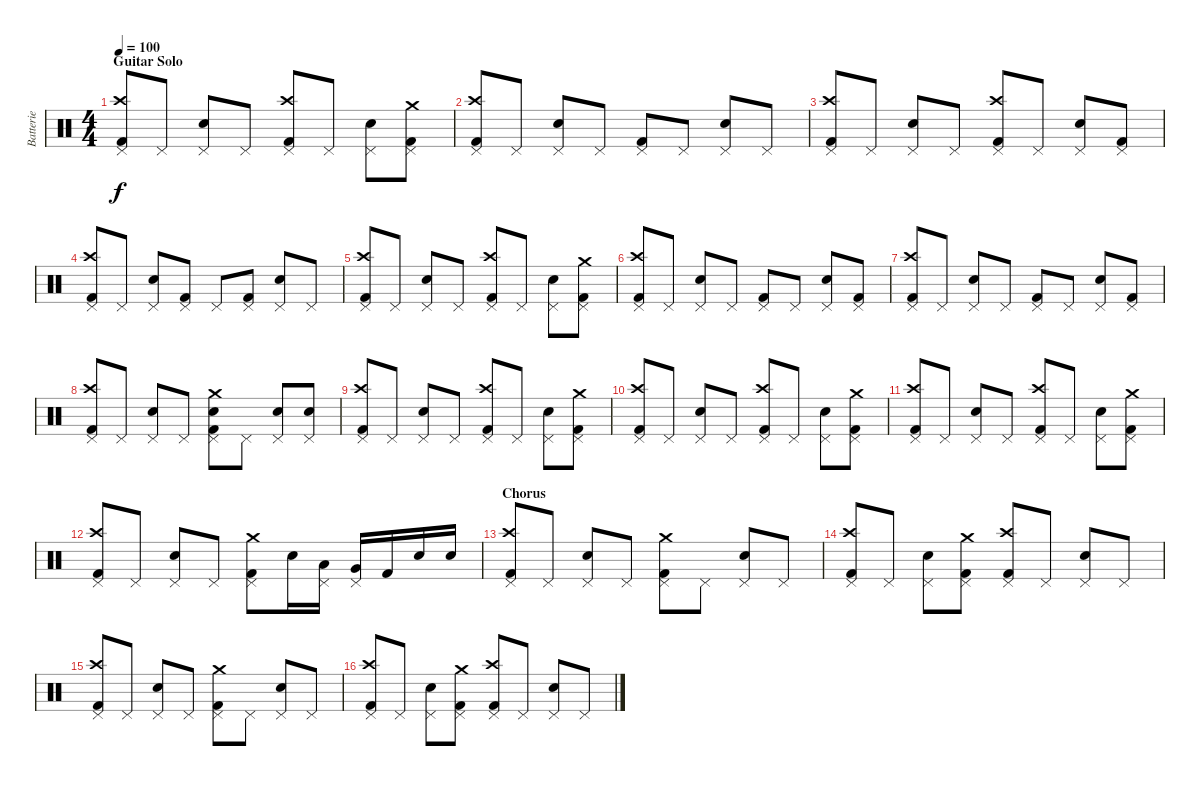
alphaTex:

\track ("Batterie" "Batterie") {instrument percussion}
\staff {score}
\articulation defaults
\ts (4 4)
\section ("" "Guitar Solo")
\tempo 100
\clef neutral
\ks c
("Pedal Hi-Hat (hit)" "Crash high (hit)" "Kick (hit) 2").8{dy f} "Pedal Hi-Hat (hit)".8 ("Pedal Hi-Hat (hit)" "Snare (hit) 2").8 "Pedal Hi-Hat (hit)".8 ("Pedal Hi-Hat (hit)" "Crash high (hit)" "Kick (hit) 2").8 "Pedal Hi-Hat (hit)".8 ("Pedal Hi-Hat (hit)" "Snare (hit) 2").8 ("Pedal Hi-Hat (hit)" "Crash medium (hit)" "Kick (hit) 2").8 |
("Pedal Hi-Hat (hit)" "Crash high (hit)" "Kick (hit) 2").8 "Pedal Hi-Hat (hit)".8 ("Pedal Hi-Hat (hit)" "Snare (hit) 2").8 "Pedal Hi-Hat (hit)".8 ("Pedal Hi-Hat (hit)" "Kick (hit) 2").8 "Pedal Hi-Hat (hit)".8 ("Pedal Hi-Hat (hit)" "Snare (hit) 2").8 "Pedal Hi-Hat (hit)".8 |
("Pedal Hi-Hat (hit)" "Crash high (hit)" "Kick (hit) 2").8 "Pedal Hi-Hat (hit)".8 ("Pedal Hi-Hat (hit)" "Snare (hit) 2").8 "Pedal Hi-Hat (hit)".8 ("Pedal Hi-Hat (hit)" "Crash high (hit)" "Kick (hit) 2").8 "Pedal Hi-Hat (hit)".8 ("Pedal Hi-Hat (hit)" "Snare (hit) 2").8 ("Pedal Hi-Hat (hit)" "Kick (hit) 2").8 |
("Pedal Hi-Hat (hit)" "Crash high (hit)" "Kick (hit) 2").8 "Pedal Hi-Hat (hit)".8 ("Pedal Hi-Hat (hit)" "Snare (hit) 2").8 ("Pedal Hi-Hat (hit)" "Kick (hit) 2").8 "Pedal Hi-Hat (hit)".8 ("Pedal Hi-Hat (hit)" "Kick (hit) 2").8 ("Pedal Hi-Hat (hit)" "Snare (hit) 2").8 "Pedal Hi-Hat (hit)".8 |
("Pedal Hi-Hat (hit)" "Crash high (hit)" "Kick (hit) 2").8 "Pedal Hi-Hat (hit)".8 ("Pedal Hi-Hat (hit)" "Snare (hit) 2").8 "Pedal Hi-Hat (hit)".8 ("Pedal Hi-Hat (hit)" "Crash high (hit)" "Kick (hit) 2").8 "Pedal Hi-Hat (hit)".8 ("Pedal Hi-Hat (hit)" "Snare (hit) 2").8 ("Pedal Hi-Hat (hit)" "Crash medium (hit)" "Kick (hit) 2").8 |
("Pedal Hi-Hat (hit)" "Crash high (hit)" "Kick (hit) 2").8 "Pedal Hi-Hat (hit)".8 ("Pedal Hi-Hat (hit)" "Snare (hit) 2").8 "Pedal Hi-Hat (hit)".8 ("Pedal Hi-Hat (hit)" "Kick (hit) 2").8 "Pedal Hi-Hat (hit)".8 ("Pedal Hi-Hat (hit)" "Snare (hit) 2").8 ("Pedal Hi-Hat (hit)" "Kick (hit) 2").8 |
("Pedal Hi-Hat (hit)" "Crash high (hit)" "Kick (hit) 2").8 "Pedal Hi-Hat (hit)".8 ("Pedal Hi-Hat (hit)" "Snare (hit) 2").8 "Pedal Hi-Hat (hit)".8 ("Pedal Hi-Hat (hit)" "Kick (hit) 2").8 "Pedal Hi-Hat (hit)".8 ("Pedal Hi-Hat (hit)" "Snare (hit) 2").8 ("Pedal Hi-Hat (hit)" "Kick (hit) 2").8 |
("Pedal Hi-Hat (hit)" "Crash high (hit)" "Kick (hit) 2").8 "Pedal Hi-Hat (hit)".8 ("Pedal Hi-Hat (hit)" "Snare (hit) 2").8 "Pedal Hi-Hat (hit)".8 ("Pedal Hi-Hat (hit)" "Crash medium (hit)" "Snare (hit) 2" "Kick (hit) 2").8 "Pedal Hi-Hat (hit)".8 ("Pedal Hi-Hat (hit)" "Snare (hit) 2").8 ("Pedal Hi-Hat (hit)" "Snare (hit) 2").8 |
("Pedal Hi-Hat (hit)" "Crash high (hit)" "Kick (hit) 2").8 "Pedal Hi-Hat (hit)".8 ("Pedal Hi-Hat (hit)" "Snare (hit) 2").8 "Pedal Hi-Hat (hit)".8 ("Pedal Hi-Hat (hit)" "Crash high (hit)" "Kick (hit) 2").8 "Pedal Hi-Hat (hit)".8 ("Pedal Hi-Hat (hit)" "Snare (hit) 2").8 ("Pedal Hi-Hat (hit)" "Crash medium (hit)" "Kick (hit) 2").8 |
("Pedal Hi-Hat (hit)" "Crash high (hit)" "Kick (hit) 2").8 "Pedal Hi-Hat (hit)".8 ("Pedal Hi-Hat (hit)" "Snare (hit) 2").8 "Pedal Hi-Hat (hit)".8 ("Pedal Hi-Hat (hit)" "Crash high (hit)" "Kick (hit) 2").8 "Pedal Hi-Hat (hit)".8 ("Pedal Hi-Hat (hit)" "Snare (hit) 2").8 ("Pedal Hi-Hat (hit)" "Crash medium (hit)" "Kick (hit) 2").8 |
("Pedal Hi-Hat (hit)" "Crash high (hit)" "Kick (hit) 2").8 "Pedal Hi-Hat (hit)".8 ("Pedal Hi-Hat (hit)" "Snare (hit) 2").8 "Pedal Hi-Hat (hit)".8 ("Pedal Hi-Hat (hit)" "Crash high (hit)" "Kick (hit) 2").8 "Pedal Hi-Hat (hit)".8 ("Pedal Hi-Hat (hit)" "Snare (hit) 2").8 ("Pedal Hi-Hat (hit)" "Crash medium (hit)" "Kick (hit) 2").8 |
("Pedal Hi-Hat (hit)" "Crash high (hit)" "Kick (hit) 2").8 "Pedal Hi-Hat (hit)".8 ("Pedal Hi-Hat (hit)" "Snare (hit) 2").8 "Pedal Hi-Hat (hit)".8 ("Pedal Hi-Hat (hit)" "Crash medium (hit)" "Kick (hit) 2").8 "Snare (hit) 2".16 ("Pedal Hi-Hat (hit)" "Low Tom (hit)").16 ("Pedal Hi-Hat (hit)" "Very Low Tom (hit)").16 "Kick (hit) 2".16 "Snare (hit) 2".16 "Snare (hit) 2".16 |
\section ("" "Chorus")
("Pedal Hi-Hat (hit)" "Crash high (hit)" "Kick (hit) 2").8 "Pedal Hi-Hat (hit)".8 ("Pedal Hi-Hat (hit)" "Snare (hit) 2").8 "Pedal Hi-Hat (hit)".8 ("Pedal Hi-Hat (hit)" "Crash medium (hit)" "Kick (hit) 2").8 "Pedal Hi-Hat (hit)".8 ("Pedal Hi-Hat (hit)" "Snare (hit) 2").8 "Pedal Hi-Hat (hit)".8 |
("Pedal Hi-Hat (hit)" "Crash high (hit)" "Kick (hit) 2").8 "Pedal Hi-Hat (hit)".8 ("Pedal Hi-Hat (hit)" "Snare (hit) 2").8 ("Pedal Hi-Hat (hit)" "Crash medium (hit)" "Kick (hit) 2").8 ("Pedal Hi-Hat (hit)" "Crash high (hit)" "Kick (hit) 2").8 "Pedal Hi-Hat (hit)".8 ("Pedal Hi-Hat (hit)" "Snare (hit) 2").8 "Pedal Hi-Hat (hit)".8 |
("Pedal Hi-Hat (hit)" "Crash high (hit)" "Kick (hit) 2").8 "Pedal Hi-Hat (hit)".8 ("Pedal Hi-Hat (hit)" "Snare (hit) 2").8 "Pedal Hi-Hat (hit)".8 ("Pedal Hi-Hat (hit)" "Crash medium (hit)" "Kick (hit) 2").8 "Pedal Hi-Hat (hit)".8 ("Pedal Hi-Hat (hit)" "Snare (hit) 2").8 "Pedal Hi-Hat (hit)".8 |
("Pedal Hi-Hat (hit)" "Crash high (hit)" "Kick (hit) 2").8 "Pedal Hi-Hat (hit)".8 ("Pedal Hi-Hat (hit)" "Snare (hit) 2").8 ("Pedal Hi-Hat (hit)" "Crash medium (hit)" "Kick (hit) 2").8 ("Pedal Hi-Hat (hit)" "Crash high (hit)" "Kick (hit) 2").8 "Pedal Hi-Hat (hit)".8 ("Pedal Hi-Hat (hit)" "Snare (hit) 2").8 "Pedal Hi-Hat (hit)".8
